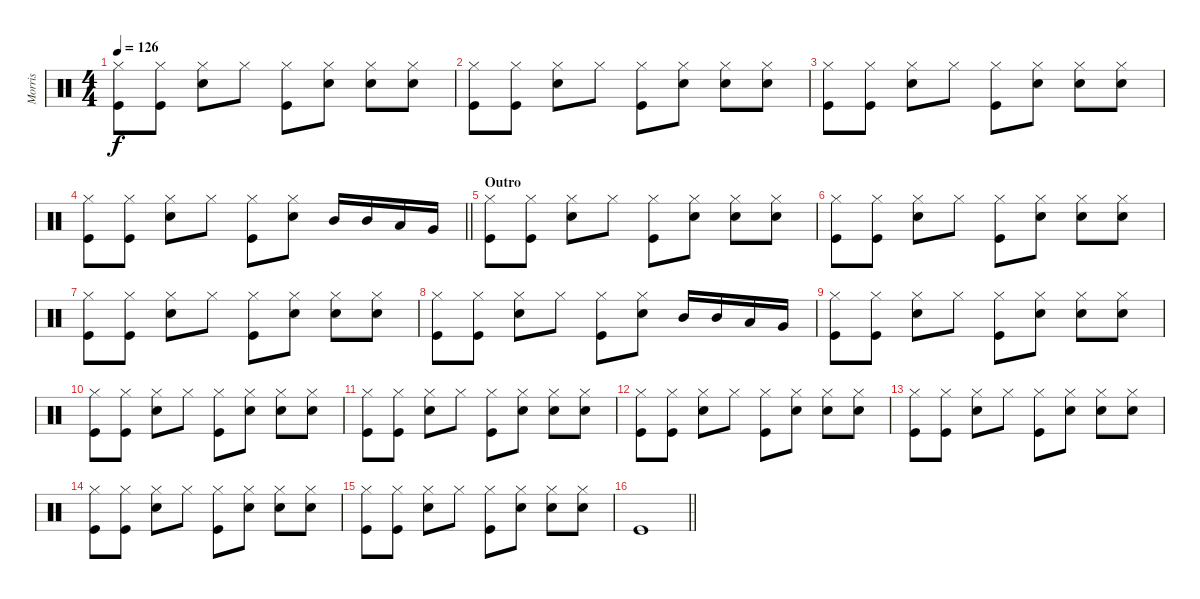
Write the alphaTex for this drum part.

\track ("Morris" "Morris") {instrument percussion}
\staff {score}
\articulation defaults
\ts (4 4)
\tempo 126
\clef neutral
\ks c
("Hi-Hat (closed)" "Kick (hit)").8{dy f} ("Hi-Hat (closed)" "Kick (hit)").8 ("Hi-Hat (closed)" "Electric Snare (hit)").8 "Hi-Hat (closed)".8 ("Hi-Hat (closed)" "Kick (hit)").8 ("Hi-Hat (closed)" "Electric Snare (hit)").8 ("Hi-Hat (closed)" "Electric Snare (hit)").8 ("Hi-Hat (closed)" "Electric Snare (hit)").8 |
("Hi-Hat (closed)" "Kick (hit)").8 ("Hi-Hat (closed)" "Kick (hit)").8 ("Hi-Hat (closed)" "Electric Snare (hit)").8 "Hi-Hat (closed)".8 ("Hi-Hat (closed)" "Kick (hit)").8 ("Hi-Hat (closed)" "Electric Snare (hit)").8 ("Hi-Hat (closed)" "Electric Snare (hit)").8 ("Hi-Hat (closed)" "Electric Snare (hit)").8 |
("Hi-Hat (closed)" "Kick (hit)").8 ("Hi-Hat (closed)" "Kick (hit)").8 ("Hi-Hat (closed)" "Electric Snare (hit)").8 "Hi-Hat (closed)".8 ("Hi-Hat (closed)" "Kick (hit)").8 ("Hi-Hat (closed)" "Electric Snare (hit)").8 ("Hi-Hat (closed)" "Electric Snare (hit)").8 ("Hi-Hat (closed)" "Electric Snare (hit)").8 |
\barLineRight lightlight
("Hi-Hat (closed)" "Kick (hit)").8 ("Hi-Hat (closed)" "Kick (hit)").8 ("Hi-Hat (closed)" "Electric Snare (hit)").8 "Hi-Hat (closed)".8 ("Hi-Hat (closed)" "Kick (hit)").8 ("Hi-Hat (closed)" "Electric Snare (hit)").8 "Mid Tom (hit)".16 "Mid Tom (hit)".16 "Low Tom (hit)".16 "Very Low Tom (hit)".16 |
\section ("" "Outro")
("Hi-Hat (closed)" "Kick (hit)").8 ("Hi-Hat (closed)" "Kick (hit)").8 ("Hi-Hat (closed)" "Electric Snare (hit)").8 "Hi-Hat (closed)".8 ("Hi-Hat (closed)" "Kick (hit)").8 ("Hi-Hat (closed)" "Electric Snare (hit)").8 ("Hi-Hat (closed)" "Electric Snare (hit)").8 ("Hi-Hat (closed)" "Electric Snare (hit)").8 |
("Hi-Hat (closed)" "Kick (hit)").8 ("Hi-Hat (closed)" "Kick (hit)").8 ("Hi-Hat (closed)" "Electric Snare (hit)").8 "Hi-Hat (closed)".8 ("Hi-Hat (closed)" "Kick (hit)").8 ("Hi-Hat (closed)" "Electric Snare (hit)").8 ("Hi-Hat (closed)" "Electric Snare (hit)").8 ("Hi-Hat (closed)" "Electric Snare (hit)").8 |
("Hi-Hat (closed)" "Kick (hit)").8 ("Hi-Hat (closed)" "Kick (hit)").8 ("Hi-Hat (closed)" "Electric Snare (hit)").8 "Hi-Hat (closed)".8 ("Hi-Hat (closed)" "Kick (hit)").8 ("Hi-Hat (closed)" "Electric Snare (hit)").8 ("Hi-Hat (closed)" "Electric Snare (hit)").8 ("Hi-Hat (closed)" "Electric Snare (hit)").8 |
("Hi-Hat (closed)" "Kick (hit)").8 ("Hi-Hat (closed)" "Kick (hit)").8 ("Hi-Hat (closed)" "Electric Snare (hit)").8 "Hi-Hat (closed)".8 ("Hi-Hat (closed)" "Kick (hit)").8 ("Hi-Hat (closed)" "Electric Snare (hit)").8 "Mid Tom (hit)".16 "Mid Tom (hit)".16 "Low Tom (hit)".16 "Very Low Tom (hit)".16 |
("Hi-Hat (closed)" "Kick (hit)").8 ("Hi-Hat (closed)" "Kick (hit)").8 ("Hi-Hat (closed)" "Electric Snare (hit)").8 "Hi-Hat (closed)".8 ("Hi-Hat (closed)" "Kick (hit)").8 ("Hi-Hat (closed)" "Electric Snare (hit)").8 ("Hi-Hat (closed)" "Electric Snare (hit)").8 ("Hi-Hat (closed)" "Electric Snare (hit)").8 |
("Hi-Hat (closed)" "Kick (hit)").8 ("Hi-Hat (closed)" "Kick (hit)").8 ("Hi-Hat (closed)" "Electric Snare (hit)").8 "Hi-Hat (closed)".8 ("Hi-Hat (closed)" "Kick (hit)").8 ("Hi-Hat (closed)" "Electric Snare (hit)").8 ("Hi-Hat (closed)" "Electric Snare (hit)").8 ("Hi-Hat (closed)" "Electric Snare (hit)").8 |
("Hi-Hat (closed)" "Kick (hit)").8 ("Hi-Hat (closed)" "Kick (hit)").8 ("Hi-Hat (closed)" "Electric Snare (hit)").8 "Hi-Hat (closed)".8 ("Hi-Hat (closed)" "Kick (hit)").8 ("Hi-Hat (closed)" "Electric Snare (hit)").8 ("Hi-Hat (closed)" "Electric Snare (hit)").8 ("Hi-Hat (closed)" "Electric Snare (hit)").8 |
("Hi-Hat (closed)" "Kick (hit)").8 ("Hi-Hat (closed)" "Kick (hit)").8 ("Hi-Hat (closed)" "Electric Snare (hit)").8 "Hi-Hat (closed)".8 ("Hi-Hat (closed)" "Kick (hit)").8 ("Hi-Hat (closed)" "Electric Snare (hit)").8 ("Hi-Hat (closed)" "Electric Snare (hit)").8 ("Hi-Hat (closed)" "Electric Snare (hit)").8 |
("Hi-Hat (closed)" "Kick (hit)").8 ("Hi-Hat (closed)" "Kick (hit)").8 ("Hi-Hat (closed)" "Electric Snare (hit)").8 "Hi-Hat (closed)".8 ("Hi-Hat (closed)" "Kick (hit)").8 ("Hi-Hat (closed)" "Electric Snare (hit)").8 ("Hi-Hat (closed)" "Electric Snare (hit)").8 ("Hi-Hat (closed)" "Electric Snare (hit)").8 |
("Hi-Hat (closed)" "Kick (hit)").8 ("Hi-Hat (closed)" "Kick (hit)").8 ("Hi-Hat (closed)" "Electric Snare (hit)").8 "Hi-Hat (closed)".8 ("Hi-Hat (closed)" "Kick (hit)").8 ("Hi-Hat (closed)" "Electric Snare (hit)").8 ("Hi-Hat (closed)" "Electric Snare (hit)").8 ("Hi-Hat (closed)" "Electric Snare (hit)").8 |
("Hi-Hat (closed)" "Kick (hit)").8 ("Hi-Hat (closed)" "Kick (hit)").8 ("Hi-Hat (closed)" "Electric Snare (hit)").8 "Hi-Hat (closed)".8 ("Hi-Hat (closed)" "Kick (hit)").8 ("Hi-Hat (closed)" "Electric Snare (hit)").8 ("Hi-Hat (closed)" "Electric Snare (hit)").8 ("Hi-Hat (closed)" "Electric Snare (hit)").8 |
\barLineRight lightlight "Kick (hit)".1
